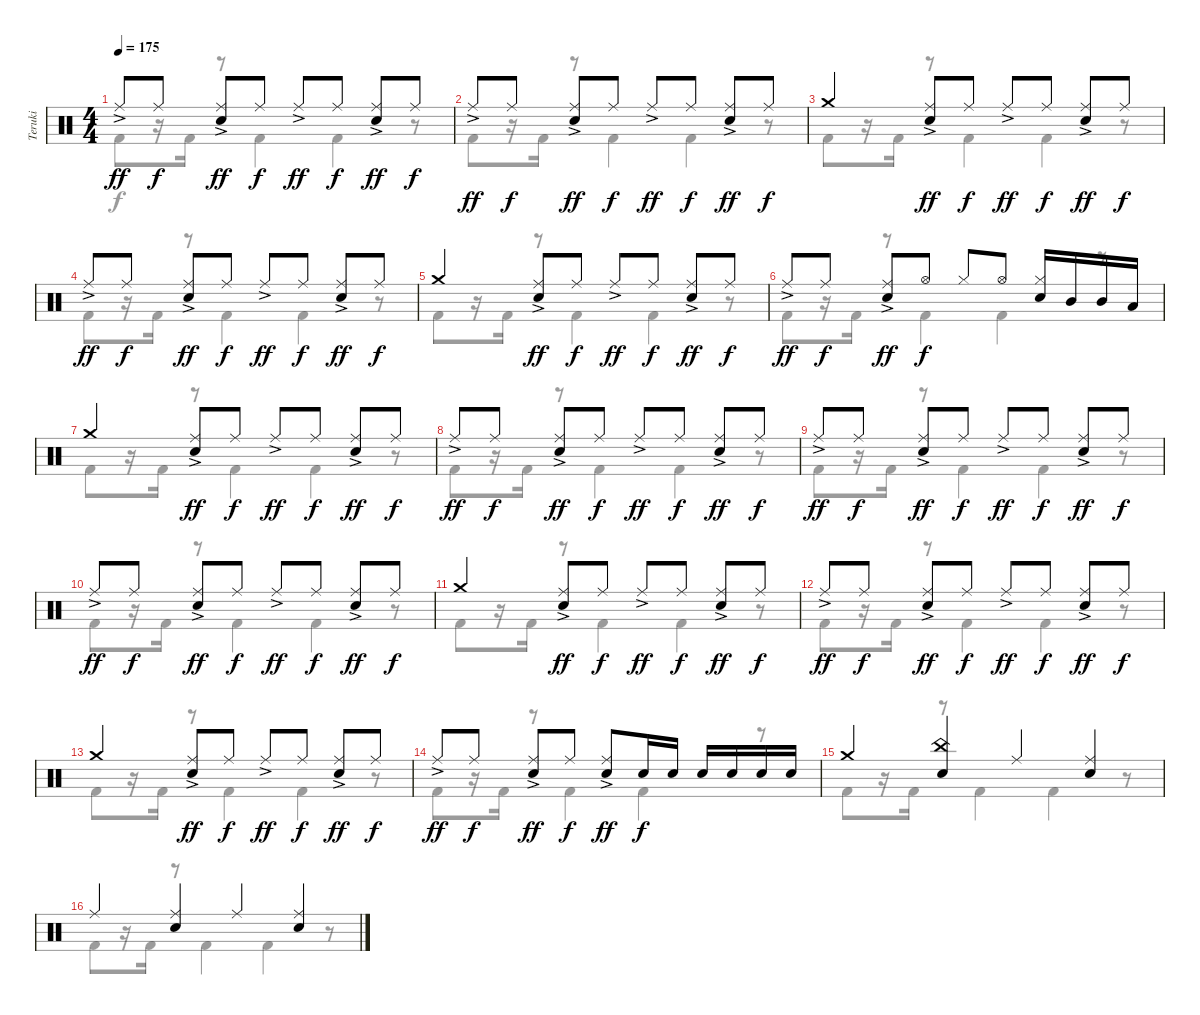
\track ("Teruki" "Teruki") {instrument percussion}
\staff {score}
\articulation defaults
\voice
\ts (4 4)
\tempo 175
\clef neutral
\ks c "Ride (middle)"{ac}.8{dy ff} "Ride (middle)".8{dy f}
("Ride (middle)"{ac} "Snare (hit) 2").8{dy ff} "Ride (middle)".8{dy f} "Ride (middle)"{ac}.8{dy ff} "Ride (middle)".8{dy f} ("Ride (middle)"{ac} "Snare (hit) 2").8{dy ff} "Ride (middle)".8{dy f} |
"Ride (middle)"{ac}.8{dy ff} "Ride (middle)".8{dy f} ("Ride (middle)"{ac} "Snare (hit) 2").8{dy ff} "Ride (middle)".8{dy f} "Ride (middle)"{ac}.8{dy ff} "Ride (middle)".8{dy f} ("Ride (middle)"{ac} "Snare (hit) 2").8{dy ff} "Ride (middle)".8{dy f} |
"Crash medium (hit)".4 ("Ride (middle)"{ac} "Snare (hit) 2").8{dy ff} "Ride (middle)".8{dy f} "Ride (middle)"{ac}.8{dy ff} "Ride (middle)".8{dy f} ("Ride (middle)"{ac} "Snare (hit) 2").8{dy ff} "Ride (middle)".8{dy f} |
"Ride (middle)"{ac}.8{dy ff} "Ride (middle)".8{dy f} ("Ride (middle)"{ac} "Snare (hit) 2").8{dy ff} "Ride (middle)".8{dy f} "Ride (middle)"{ac}.8{dy ff} "Ride (middle)".8{dy f} ("Ride (middle)"{ac} "Snare (hit) 2").8{dy ff} "Ride (middle)".8{dy f} |
"Crash medium (hit)".4 ("Ride (middle)"{ac} "Snare (hit) 2").8{dy ff} "Ride (middle)".8{dy f} "Ride (middle)"{ac}.8{dy ff} "Ride (middle)".8{dy f} ("Ride (middle)"{ac} "Snare (hit) 2").8{dy ff} "Ride (middle)".8{dy f} |
"Ride (middle)"{ac}.8{dy ff} "Ride (middle)".8{dy f} ("Ride (middle)"{ac} "Snare (hit) 2").8{dy ff} "Hi-Hat (open)".8{dy f} "Hi-Hat (closed)".8 "Hi-Hat (open)".8 ("Hi-Hat (closed)" "Snare (hit) 2").16 "Mid Tom (hit)".16 "Mid Tom (hit)".16 "Low Tom (hit)".16 |
"Crash medium (hit)".4 ("Ride (middle)"{ac} "Snare (hit) 2").8{dy ff} "Ride (middle)".8{dy f} "Ride (middle)"{ac}.8{dy ff} "Ride (middle)".8{dy f} ("Ride (middle)"{ac} "Snare (hit) 2").8{dy ff} "Ride (middle)".8{dy f} |
"Ride (middle)"{ac}.8{dy ff} "Ride (middle)".8{dy f} ("Ride (middle)"{ac} "Snare (hit) 2").8{dy ff} "Ride (middle)".8{dy f} "Ride (middle)"{ac}.8{dy ff} "Ride (middle)".8{dy f} ("Ride (middle)"{ac} "Snare (hit) 2").8{dy ff} "Ride (middle)".8{dy f} |
"Ride (middle)"{ac}.8{dy ff} "Ride (middle)".8{dy f} ("Ride (middle)"{ac} "Snare (hit) 2").8{dy ff} "Ride (middle)".8{dy f} "Ride (middle)"{ac}.8{dy ff} "Ride (middle)".8{dy f} ("Ride (middle)"{ac} "Snare (hit) 2").8{dy ff} "Ride (middle)".8{dy f} |
"Ride (middle)"{ac}.8{dy ff} "Ride (middle)".8{dy f} ("Ride (middle)"{ac} "Snare (hit) 2").8{dy ff} "Ride (middle)".8{dy f} "Ride (middle)"{ac}.8{dy ff} "Ride (middle)".8{dy f} ("Ride (middle)"{ac} "Snare (hit) 2").8{dy ff} "Ride (middle)".8{dy f} |
"Crash medium (hit)".4 ("Ride (middle)"{ac} "Snare (hit) 2").8{dy ff} "Ride (middle)".8{dy f} "Ride (middle)"{ac}.8{dy ff} "Ride (middle)".8{dy f} ("Ride (middle)"{ac} "Snare (hit) 2").8{dy ff} "Ride (middle)".8{dy f} |
"Ride (middle)"{ac}.8{dy ff} "Ride (middle)".8{dy f} ("Ride (middle)"{ac} "Snare (hit) 2").8{dy ff} "Ride (middle)".8{dy f} "Ride (middle)"{ac}.8{dy ff} "Ride (middle)".8{dy f} ("Ride (middle)"{ac} "Snare (hit) 2").8{dy ff} "Ride (middle)".8{dy f} |
"Crash medium (hit)".4 ("Ride (middle)"{ac} "Snare (hit) 2").8{dy ff} "Ride (middle)".8{dy f} "Ride (middle)"{ac}.8{dy ff} "Ride (middle)".8{dy f} ("Ride (middle)"{ac} "Snare (hit) 2").8{dy ff} "Ride (middle)".8{dy f} |
"Ride (middle)"{ac}.8{dy ff} "Ride (middle)".8{dy f} ("Ride (middle)"{ac} "Snare (hit) 2").8{dy ff} "Ride (middle)".8{dy f} ("Ride (middle)"{ac} "Snare (hit) 2").8{dy ff} "Snare (hit) 2".16{dy f} "Snare (hit) 2".16 "Snare (hit) 2".16 "Snare (hit) 2".16 "Snare (hit) 2".16 "Snare (hit) 2".16 |
"Crash medium (hit)".4 ("China (hit)" "Snare (hit) 2").4 "Ride (middle)".4 ("Ride (middle)" "Snare (hit) 2").4 |
"Ride (middle)".4 ("Ride (middle)" "Snare (hit) 2").4 "Ride (middle)".4 ("Ride (middle)" "Snare (hit) 2").4
\voice
\clef neutral
\ottava regular
\simile none
\ks c "Kick (hit) 2".8{dy f}
r.16 "Kick (hit) 2".16 r.8 "Kick (hit) 2".4 "Kick (hit) 2".4 r.8 |
"Kick (hit) 2".8 r.16 "Kick (hit) 2".16 r.8 "Kick (hit) 2".4 "Kick (hit) 2".4 r.8 |
"Kick (hit) 2".8 r.16 "Kick (hit) 2".16 r.8 "Kick (hit) 2".4 "Kick (hit) 2".4 r.8 |
"Kick (hit) 2".8 r.16 "Kick (hit) 2".16 r.8 "Kick (hit) 2".4 "Kick (hit) 2".4 r.8 |
"Kick (hit) 2".8 r.16 "Kick (hit) 2".16 r.8 "Kick (hit) 2".4 "Kick (hit) 2".4 r.8 |
"Kick (hit) 2".8 r.16 "Kick (hit) 2".16 r.8 "Kick (hit) 2".4 "Kick (hit) 2".4 r.8 |
"Kick (hit) 2".8 r.16 "Kick (hit) 2".16 r.8 "Kick (hit) 2".4 "Kick (hit) 2".4 r.8 |
"Kick (hit) 2".8 r.16 "Kick (hit) 2".16 r.8 "Kick (hit) 2".4 "Kick (hit) 2".4 r.8 |
"Kick (hit) 2".8 r.16 "Kick (hit) 2".16 r.8 "Kick (hit) 2".4 "Kick (hit) 2".4 r.8 |
"Kick (hit) 2".8 r.16 "Kick (hit) 2".16 r.8 "Kick (hit) 2".4 "Kick (hit) 2".4 r.8 |
"Kick (hit) 2".8 r.16 "Kick (hit) 2".16 r.8 "Kick (hit) 2".4 "Kick (hit) 2".4 r.8 |
"Kick (hit) 2".8 r.16 "Kick (hit) 2".16 r.8 "Kick (hit) 2".4 "Kick (hit) 2".4 r.8 |
"Kick (hit) 2".8 r.16 "Kick (hit) 2".16 r.8 "Kick (hit) 2".4 "Kick (hit) 2".4 r.8 |
"Kick (hit) 2".8 r.16 "Kick (hit) 2".16 r.8 "Kick (hit) 2".4 "Kick (hit) 2".4 r.8 |
"Kick (hit) 2".8 r.16 "Kick (hit) 2".16 r.8 "Kick (hit) 2".4 "Kick (hit) 2".4 r.8 |
"Kick (hit) 2".8 r.16 "Kick (hit) 2".16 r.8 "Kick (hit) 2".4 "Kick (hit) 2".4 r.8
